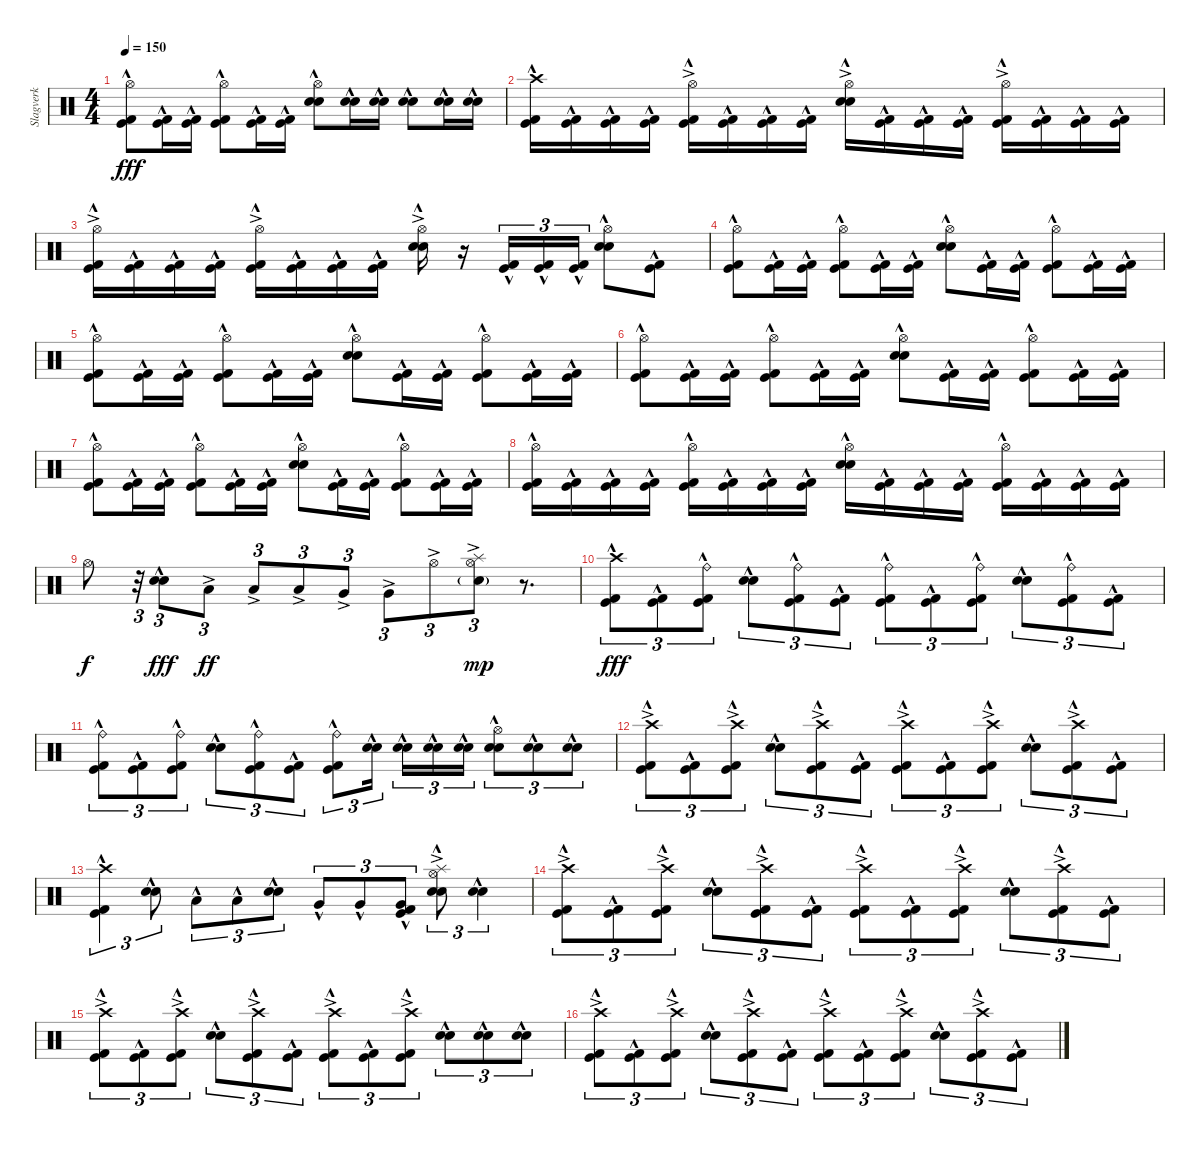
\track ("Slagverk" "Slagverk") {instrument percussion}
\staff {score}
\articulation defaults
\ts (4 4)
\tempo 150
\clef neutral
\ks c
("Hi-Hat (open)" "Kick (hit)"{hac} "Kick (hit) 2"{hac}).8{dy fff} ("Kick (hit)"{hac} "Kick (hit) 2"{hac}).16 ("Kick (hit)"{hac} "Kick (hit) 2"{hac}).16 ("Hi-Hat (open)" "Kick (hit)"{hac} "Kick (hit) 2"{hac}).8 ("Kick (hit)"{hac} "Kick (hit) 2"{hac}).16 ("Kick (hit)"{hac} "Kick (hit) 2"{hac}).16 ("Hi-Hat (open)" "Electric Snare (hit)"{hac} "Snare (hit) 2").8 ("Electric Snare (hit)"{hac} "Snare (hit) 2").16 ("Electric Snare (hit)"{hac} "Snare (hit) 2").16 ("Electric Snare (hit)"{hac} "Snare (hit) 2").8 ("Electric Snare (hit)"{hac} "Snare (hit) 2").16 ("Electric Snare (hit)"{hac} "Snare (hit) 2").16 |
("Crash high (hit)" "Kick (hit)"{hac} "Kick (hit) 2"{hac}).16 ("Kick (hit)"{hac} "Kick (hit) 2"{hac}).16 ("Kick (hit)"{hac} "Kick (hit) 2"{hac}).16 ("Kick (hit)"{hac} "Kick (hit) 2"{hac}).16 ("Hi-Hat (open)"{ac} "Kick (hit)"{hac} "Kick (hit) 2"{hac}).16 ("Kick (hit)"{hac} "Kick (hit) 2"{hac}).16 ("Kick (hit)"{hac} "Kick (hit) 2"{hac}).16 ("Kick (hit)"{hac} "Kick (hit) 2"{hac}).16 ("Hi-Hat (open)"{ac} "Electric Snare (hit)"{hac} "Snare (hit) 2").16 ("Kick (hit)"{hac} "Kick (hit) 2"{hac}).16 ("Kick (hit)"{hac} "Kick (hit) 2"{hac}).16 ("Kick (hit)"{hac} "Kick (hit) 2"{hac}).16 ("Hi-Hat (open)"{ac} "Kick (hit)"{hac} "Kick (hit) 2"{hac}).16 ("Kick (hit)"{hac} "Kick (hit) 2"{hac}).16 ("Kick (hit)"{hac} "Kick (hit) 2"{hac}).16 ("Kick (hit)"{hac} "Kick (hit) 2"{hac}).16 |
("Hi-Hat (open)"{ac} "Kick (hit)"{hac} "Kick (hit) 2"{hac}).16 ("Kick (hit)"{hac} "Kick (hit) 2"{hac}).16 ("Kick (hit)"{hac} "Kick (hit) 2"{hac}).16 ("Kick (hit)"{hac} "Kick (hit) 2"{hac}).16 ("Hi-Hat (open)"{ac} "Kick (hit)"{hac} "Kick (hit) 2"{hac}).16 ("Kick (hit)"{hac} "Kick (hit) 2"{hac}).16 ("Kick (hit)"{hac} "Kick (hit) 2"{hac}).16 ("Kick (hit)"{hac} "Kick (hit) 2"{hac}).16 ("Hi-Hat (open)"{ac} "Electric Snare (hit)"{hac} "Snare (hit) 2").16 r.16 ("Kick (hit)"{hac} "Kick (hit) 2"{hac}).16{tu (3 2)} ("Kick (hit)"{hac} "Kick (hit) 2"{hac}).16{tu (3 2)} ("Kick (hit)"{hac} "Kick (hit) 2"{hac}).16{tu (3 2)} ("Hi-Hat (open)" "Electric Snare (hit)"{hac} "Snare (hit) 2").8 ("Kick (hit)"{hac} "Kick (hit) 2"{hac}).8 |
("Hi-Hat (open)" "Kick (hit)"{hac} "Kick (hit) 2"{hac}).8 ("Kick (hit)"{hac} "Kick (hit) 2"{hac}).16 ("Kick (hit)"{hac} "Kick (hit) 2"{hac}).16 ("Hi-Hat (open)" "Kick (hit)"{hac} "Kick (hit) 2"{hac}).8 ("Kick (hit)"{hac} "Kick (hit) 2"{hac}).16 ("Kick (hit)"{hac} "Kick (hit) 2"{hac}).16 ("Hi-Hat (open)" "Electric Snare (hit)"{hac} "Snare (hit) 2").8 ("Kick (hit)"{hac} "Kick (hit) 2"{hac}).16 ("Kick (hit)"{hac} "Kick (hit) 2"{hac}).16 ("Hi-Hat (open)" "Kick (hit)"{hac} "Kick (hit) 2"{hac}).8 ("Kick (hit)"{hac} "Kick (hit) 2"{hac}).16 ("Kick (hit)"{hac} "Kick (hit) 2"{hac}).16 |
("Hi-Hat (open)" "Kick (hit)"{hac} "Kick (hit) 2"{hac}).8 ("Kick (hit)"{hac} "Kick (hit) 2"{hac}).16 ("Kick (hit)"{hac} "Kick (hit) 2"{hac}).16 ("Hi-Hat (open)" "Kick (hit)"{hac} "Kick (hit) 2"{hac}).8 ("Kick (hit)"{hac} "Kick (hit) 2"{hac}).16 ("Kick (hit)"{hac} "Kick (hit) 2"{hac}).16 ("Hi-Hat (open)" "Electric Snare (hit)"{hac} "Snare (hit) 2").8 ("Kick (hit)"{hac} "Kick (hit) 2"{hac}).16 ("Kick (hit)"{hac} "Kick (hit) 2"{hac}).16 ("Hi-Hat (open)" "Kick (hit)"{hac} "Kick (hit) 2"{hac}).8 ("Kick (hit)"{hac} "Kick (hit) 2"{hac}).16 ("Kick (hit)"{hac} "Kick (hit) 2"{hac}).16 |
("Hi-Hat (open)" "Kick (hit)"{hac} "Kick (hit) 2"{hac}).8 ("Kick (hit)"{hac} "Kick (hit) 2"{hac}).16 ("Kick (hit)"{hac} "Kick (hit) 2"{hac}).16 ("Hi-Hat (open)" "Kick (hit)"{hac} "Kick (hit) 2"{hac}).8 ("Kick (hit)"{hac} "Kick (hit) 2"{hac}).16 ("Kick (hit)"{hac} "Kick (hit) 2"{hac}).16 ("Hi-Hat (open)" "Electric Snare (hit)"{hac} "Snare (hit) 2").8 ("Kick (hit)"{hac} "Kick (hit) 2"{hac}).16 ("Kick (hit)"{hac} "Kick (hit) 2"{hac}).16 ("Hi-Hat (open)" "Kick (hit)"{hac} "Kick (hit) 2"{hac}).8 ("Kick (hit)"{hac} "Kick (hit) 2"{hac}).16 ("Kick (hit)"{hac} "Kick (hit) 2"{hac}).16 |
("Hi-Hat (open)" "Kick (hit)"{hac} "Kick (hit) 2"{hac}).8 ("Kick (hit)"{hac} "Kick (hit) 2"{hac}).16 ("Kick (hit)"{hac} "Kick (hit) 2"{hac}).16 ("Hi-Hat (open)" "Kick (hit)"{hac} "Kick (hit) 2"{hac}).8 ("Kick (hit)"{hac} "Kick (hit) 2"{hac}).16 ("Kick (hit)"{hac} "Kick (hit) 2"{hac}).16 ("Hi-Hat (open)" "Electric Snare (hit)"{hac} "Snare (hit) 2").8 ("Kick (hit)"{hac} "Kick (hit) 2"{hac}).16 ("Kick (hit)"{hac} "Kick (hit) 2"{hac}).16 ("Hi-Hat (open)" "Kick (hit)"{hac} "Kick (hit) 2"{hac}).8 ("Kick (hit)"{hac} "Kick (hit) 2"{hac}).16 ("Kick (hit)"{hac} "Kick (hit) 2"{hac}).16 |
("Hi-Hat (open)" "Kick (hit)"{hac} "Kick (hit) 2"{hac}).16 ("Kick (hit)"{hac} "Kick (hit) 2"{hac}).16 ("Kick (hit)"{hac} "Kick (hit) 2"{hac}).16 ("Kick (hit)"{hac} "Kick (hit) 2"{hac}).16 ("Hi-Hat (open)" "Kick (hit)"{hac} "Kick (hit) 2"{hac}).16 ("Kick (hit)"{hac} "Kick (hit) 2"{hac}).16 ("Kick (hit)"{hac} "Kick (hit) 2"{hac}).16 ("Kick (hit)"{hac} "Kick (hit) 2"{hac}).16 ("Hi-Hat (open)" "Electric Snare (hit)"{hac} "Snare (hit) 2").16 ("Kick (hit)"{hac} "Kick (hit) 2"{hac}).16 ("Kick (hit)"{hac} "Kick (hit) 2"{hac}).16 ("Kick (hit)"{hac} "Kick (hit) 2"{hac}).16 ("Hi-Hat (open)" "Kick (hit)"{hac} "Kick (hit) 2"{hac}).16 ("Kick (hit)"{hac} "Kick (hit) 2"{hac}).16 ("Kick (hit)"{hac} "Kick (hit) 2"{hac}).16 ("Kick (hit)"{hac} "Kick (hit) 2"{hac}).16 |
"Hi-Hat (open)".8{dy f} r.32{tu (3 2)} ("Electric Snare (hit)"{hac} "Snare (hit) 2").8{tu (3 2) dy fff} "Low Tom (hit)"{ac}.8{tu (3 2) dy ff} "Low Tom (hit)"{ac}.8{tu (3 2)} "Low Tom (hit)"{ac}.8{tu (3 2)} "Very Low Tom (hit)"{ac}.8{tu (3 2)} "Very Low Tom (hit)"{ac}.8{tu (3 2)} "Hi-Hat (open)"{ac}.8{tu (3 2)} ("Hi-Hat (open)"{ac} "Splash (hit)"{ac} "Snare (hit) 2"{g}).8{tu (3 2) dy mp} r.8{d} |
("Crash high (hit)" "Kick (hit)"{hac} "Kick (hit) 2"{hac}).8{tu (3 2) dy fff} ("Kick (hit)"{hac} "Kick (hit) 2"{hac}).8{tu (3 2)} ("Ride (bell)" "Kick (hit)"{hac} "Kick (hit) 2"{hac}).8{tu (3 2)} ("Electric Snare (hit)"{hac} "Snare (hit) 2").8{tu (3 2)} ("Ride (bell)" "Kick (hit)"{hac} "Kick (hit) 2"{hac}).8{tu (3 2)} ("Kick (hit)"{hac} "Kick (hit) 2"{hac}).8{tu (3 2)} ("Ride (bell)" "Kick (hit)"{hac} "Kick (hit) 2"{hac}).8{tu (3 2)} ("Kick (hit)"{hac} "Kick (hit) 2"{hac}).8{tu (3 2)} ("Ride (bell)" "Kick (hit)"{hac} "Kick (hit) 2"{hac}).8{tu (3 2)} ("Electric Snare (hit)"{hac} "Snare (hit) 2").8{tu (3 2)} ("Ride (bell)" "Kick (hit)"{hac} "Kick (hit) 2"{hac}).8{tu (3 2)} ("Kick (hit)"{hac} "Kick (hit) 2"{hac}).8{tu (3 2)} |
("Ride (bell)" "Kick (hit)"{hac} "Kick (hit) 2"{hac}).8{tu (3 2)} ("Kick (hit)"{hac} "Kick (hit) 2"{hac}).8{tu (3 2)} ("Ride (bell)" "Kick (hit)"{hac} "Kick (hit) 2"{hac}).8{tu (3 2)} ("Electric Snare (hit)"{hac} "Snare (hit) 2").8{tu (3 2)} ("Ride (bell)" "Kick (hit)"{hac} "Kick (hit) 2"{hac}).8{tu (3 2)} ("Kick (hit)"{hac} "Kick (hit) 2"{hac}).8{tu (3 2)} ("Ride (bell)" "Kick (hit)"{hac} "Kick (hit) 2"{hac}).8{tu (3 2)} ("Electric Snare (hit)"{hac} "Snare (hit) 2").16{tu (3 2) beam splitsecondary} ("Electric Snare (hit)"{hac} "Snare (hit) 2").16{tu (3 2)} ("Electric Snare (hit)"{hac} "Snare (hit) 2").16{tu (3 2)} ("Electric Snare (hit)"{hac} "Snare (hit) 2").16{tu (3 2)} ("Hi-Hat (open)" "Electric Snare (hit)"{hac} "Snare (hit) 2").8{tu (3 2)} ("Electric Snare (hit)"{hac} "Snare (hit) 2").8{tu (3 2)} ("Electric Snare (hit)"{hac} "Snare (hit) 2").8{tu (3 2)} |
("Crash high (hit)"{ac} "Kick (hit)"{hac} "Kick (hit) 2"{hac}).8{tu (3 2)} ("Kick (hit)"{hac} "Kick (hit) 2"{hac}).8{tu (3 2)} ("Crash high (hit)"{ac} "Kick (hit)"{hac} "Kick (hit) 2"{hac}).8{tu (3 2)} ("Electric Snare (hit)"{hac} "Snare (hit) 2").8{tu (3 2)} ("Crash high (hit)"{ac} "Kick (hit)"{hac} "Kick (hit) 2"{hac}).8{tu (3 2)} ("Kick (hit)"{hac} "Kick (hit) 2"{hac}).8{tu (3 2)} ("Crash high (hit)"{ac} "Kick (hit)"{hac} "Kick (hit) 2"{hac}).8{tu (3 2)} ("Kick (hit)"{hac} "Kick (hit) 2"{hac}).8{tu (3 2)} ("Crash high (hit)"{ac} "Kick (hit)"{hac} "Kick (hit) 2"{hac}).8{tu (3 2)} ("Electric Snare (hit)"{hac} "Snare (hit) 2").8{tu (3 2)} ("Crash high (hit)"{ac} "Kick (hit)"{hac} "Kick (hit) 2"{hac}).8{tu (3 2)} ("Kick (hit)"{hac} "Kick (hit) 2"{hac}).8{tu (3 2)} |
("Crash high (hit)" "Kick (hit)"{hac} "Kick (hit) 2"{hac}).4{tu (3 2)} ("Electric Snare (hit)"{hac} "Snare (hit) 2").8{tu (3 2)} "Low Tom (hit)"{hac}.8{tu (3 2)} "Low Tom (hit)"{hac}.8{tu (3 2)} ("Electric Snare (hit)"{hac} "Snare (hit) 2").8{tu (3 2)} "Very Low Tom (hit)"{hac}.8{tu (3 2)} "Very Low Tom (hit)"{hac}.8{tu (3 2)} ("Very Low Tom (hit)" "Kick (hit)"{hac} "Kick (hit) 2"{hac}).8{tu (3 2)} ("Hi-Hat (open)" "Splash (hit)"{ac} "Electric Snare (hit)"{hac} "Snare (hit) 2").8{tu (3 2)} ("Electric Snare (hit)"{hac} "Snare (hit) 2").4{tu (3 2)} |
("Crash high (hit)"{ac} "Kick (hit)"{hac} "Kick (hit) 2"{hac}).8{tu (3 2)} ("Kick (hit)"{hac} "Kick (hit) 2"{hac}).8{tu (3 2)} ("Crash high (hit)"{ac} "Kick (hit)"{hac} "Kick (hit) 2"{hac}).8{tu (3 2)} ("Electric Snare (hit)"{hac} "Snare (hit) 2").8{tu (3 2)} ("Crash high (hit)"{ac} "Kick (hit)"{hac} "Kick (hit) 2"{hac}).8{tu (3 2)} ("Kick (hit)"{hac} "Kick (hit) 2"{hac}).8{tu (3 2)} ("Crash high (hit)"{ac} "Kick (hit)"{hac} "Kick (hit) 2"{hac}).8{tu (3 2)} ("Kick (hit)"{hac} "Kick (hit) 2"{hac}).8{tu (3 2)} ("Crash high (hit)"{ac} "Kick (hit)"{hac} "Kick (hit) 2"{hac}).8{tu (3 2)} ("Electric Snare (hit)"{hac} "Snare (hit) 2").8{tu (3 2)} ("Crash high (hit)"{ac} "Kick (hit)"{hac} "Kick (hit) 2"{hac}).8{tu (3 2)} ("Kick (hit)"{hac} "Kick (hit) 2"{hac}).8{tu (3 2)} |
("Crash high (hit)"{ac} "Kick (hit)"{hac} "Kick (hit) 2"{hac}).8{tu (3 2)} ("Kick (hit)"{hac} "Kick (hit) 2"{hac}).8{tu (3 2)} ("Crash high (hit)"{ac} "Kick (hit)"{hac} "Kick (hit) 2"{hac}).8{tu (3 2)} ("Electric Snare (hit)"{hac} "Snare (hit) 2").8{tu (3 2)} ("Crash high (hit)"{ac} "Kick (hit)"{hac} "Kick (hit) 2"{hac}).8{tu (3 2)} ("Kick (hit)"{hac} "Kick (hit) 2"{hac}).8{tu (3 2)} ("Crash high (hit)"{ac} "Kick (hit)"{hac} "Kick (hit) 2"{hac}).8{tu (3 2)} ("Kick (hit)"{hac} "Kick (hit) 2"{hac}).8{tu (3 2)} ("Crash high (hit)"{ac} "Kick (hit)"{hac} "Kick (hit) 2"{hac}).8{tu (3 2)} ("Electric Snare (hit)"{hac} "Snare (hit) 2").8{tu (3 2)} ("Electric Snare (hit)"{hac} "Snare (hit) 2").8{tu (3 2)} ("Electric Snare (hit)"{hac} "Snare (hit) 2").8{tu (3 2)} |
("Crash high (hit)"{ac} "Kick (hit)"{hac} "Kick (hit) 2"{hac}).8{tu (3 2)} ("Kick (hit)"{hac} "Kick (hit) 2"{hac}).8{tu (3 2)} ("Crash high (hit)"{ac} "Kick (hit)"{hac} "Kick (hit) 2"{hac}).8{tu (3 2)} ("Electric Snare (hit)"{hac} "Snare (hit) 2").8{tu (3 2)} ("Crash high (hit)"{ac} "Kick (hit)"{hac} "Kick (hit) 2"{hac}).8{tu (3 2)} ("Kick (hit)"{hac} "Kick (hit) 2"{hac}).8{tu (3 2)} ("Crash high (hit)"{ac} "Kick (hit)"{hac} "Kick (hit) 2"{hac}).8{tu (3 2)} ("Kick (hit)"{hac} "Kick (hit) 2"{hac}).8{tu (3 2)} ("Crash high (hit)"{ac} "Kick (hit)"{hac} "Kick (hit) 2"{hac}).8{tu (3 2)} ("Electric Snare (hit)"{hac} "Snare (hit) 2").8{tu (3 2)} ("Crash high (hit)"{ac} "Kick (hit)"{hac} "Kick (hit) 2"{hac}).8{tu (3 2)} ("Kick (hit)"{hac} "Kick (hit) 2"{hac}).8{tu (3 2)}
